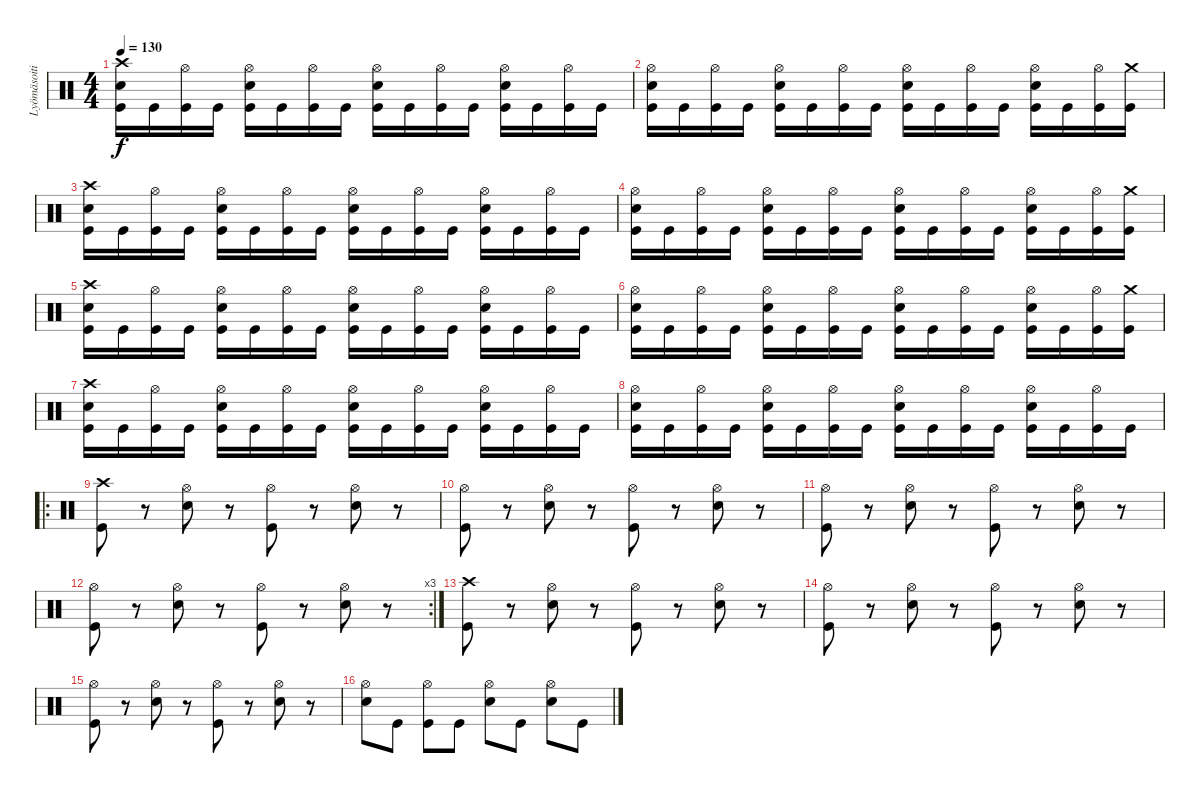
\track ("Lyömäsoitin" "Lyömäsoiti") {instrument percussion}
\staff {score}
\articulation defaults
\ts (4 4)
\tempo 130
\clef neutral
\ks c
("Crash high (hit)" "Snare (hit) 2" "Kick (hit)").16{dy f} "Kick (hit)".16 ("Hi-Hat (open)" "Kick (hit)").16 "Kick (hit)".16 ("Hi-Hat (open)" "Snare (hit) 2" "Kick (hit)").16 "Kick (hit)".16 ("Hi-Hat (open)" "Kick (hit)").16 "Kick (hit)".16 ("Hi-Hat (open)" "Snare (hit) 2" "Kick (hit)").16 "Kick (hit)".16 ("Hi-Hat (open)" "Kick (hit)").16 "Kick (hit)".16 ("Hi-Hat (open)" "Snare (hit) 2" "Kick (hit)").16 "Kick (hit)".16 ("Hi-Hat (open)" "Kick (hit)").16 "Kick (hit)".16 |
("Hi-Hat (open)" "Snare (hit) 2" "Kick (hit)").16 "Kick (hit)".16 ("Hi-Hat (open)" "Kick (hit)").16 "Kick (hit)".16 ("Hi-Hat (open)" "Snare (hit) 2" "Kick (hit)").16 "Kick (hit)".16 ("Hi-Hat (open)" "Kick (hit)").16 "Kick (hit)".16 ("Hi-Hat (open)" "Snare (hit) 2" "Kick (hit)").16 "Kick (hit)".16 ("Hi-Hat (open)" "Kick (hit)").16 "Kick (hit)".16 ("Hi-Hat (open)" "Snare (hit) 2" "Kick (hit)").16 "Kick (hit)".16 ("Hi-Hat (open)" "Kick (hit)").16 ("Crash medium (hit)" "Kick (hit)").16 |
("Crash high (hit)" "Snare (hit) 2" "Kick (hit)").16 "Kick (hit)".16 ("Hi-Hat (open)" "Kick (hit)").16 "Kick (hit)".16 ("Hi-Hat (open)" "Snare (hit) 2" "Kick (hit)").16 "Kick (hit)".16 ("Hi-Hat (open)" "Kick (hit)").16 "Kick (hit)".16 ("Hi-Hat (open)" "Snare (hit) 2" "Kick (hit)").16 "Kick (hit)".16 ("Hi-Hat (open)" "Kick (hit)").16 "Kick (hit)".16 ("Hi-Hat (open)" "Snare (hit) 2" "Kick (hit)").16 "Kick (hit)".16 ("Hi-Hat (open)" "Kick (hit)").16 "Kick (hit)".16 |
("Hi-Hat (open)" "Snare (hit) 2" "Kick (hit)").16 "Kick (hit)".16 ("Hi-Hat (open)" "Kick (hit)").16 "Kick (hit)".16 ("Hi-Hat (open)" "Snare (hit) 2" "Kick (hit)").16 "Kick (hit)".16 ("Hi-Hat (open)" "Kick (hit)").16 "Kick (hit)".16 ("Hi-Hat (open)" "Snare (hit) 2" "Kick (hit)").16 "Kick (hit)".16 ("Hi-Hat (open)" "Kick (hit)").16 "Kick (hit)".16 ("Hi-Hat (open)" "Snare (hit) 2" "Kick (hit)").16 "Kick (hit)".16 ("Hi-Hat (open)" "Kick (hit)").16 ("Crash medium (hit)" "Kick (hit)").16 |
("Crash high (hit)" "Snare (hit) 2" "Kick (hit)").16 "Kick (hit)".16 ("Hi-Hat (open)" "Kick (hit)").16 "Kick (hit)".16 ("Hi-Hat (open)" "Snare (hit) 2" "Kick (hit)").16 "Kick (hit)".16 ("Hi-Hat (open)" "Kick (hit)").16 "Kick (hit)".16 ("Hi-Hat (open)" "Snare (hit) 2" "Kick (hit)").16 "Kick (hit)".16 ("Hi-Hat (open)" "Kick (hit)").16 "Kick (hit)".16 ("Hi-Hat (open)" "Snare (hit) 2" "Kick (hit)").16 "Kick (hit)".16 ("Hi-Hat (open)" "Kick (hit)").16 "Kick (hit)".16 |
("Hi-Hat (open)" "Snare (hit) 2" "Kick (hit)").16 "Kick (hit)".16 ("Hi-Hat (open)" "Kick (hit)").16 "Kick (hit)".16 ("Hi-Hat (open)" "Snare (hit) 2" "Kick (hit)").16 "Kick (hit)".16 ("Hi-Hat (open)" "Kick (hit)").16 "Kick (hit)".16 ("Hi-Hat (open)" "Snare (hit) 2" "Kick (hit)").16 "Kick (hit)".16 ("Hi-Hat (open)" "Kick (hit)").16 "Kick (hit)".16 ("Hi-Hat (open)" "Snare (hit) 2" "Kick (hit)").16 "Kick (hit)".16 ("Hi-Hat (open)" "Kick (hit)").16 ("Crash medium (hit)" "Kick (hit)").16 |
("Crash high (hit)" "Snare (hit) 2" "Kick (hit)").16 "Kick (hit)".16 ("Hi-Hat (open)" "Kick (hit)").16 "Kick (hit)".16 ("Hi-Hat (open)" "Snare (hit) 2" "Kick (hit)").16 "Kick (hit)".16 ("Hi-Hat (open)" "Kick (hit)").16 "Kick (hit)".16 ("Hi-Hat (open)" "Snare (hit) 2" "Kick (hit)").16 "Kick (hit)".16 ("Hi-Hat (open)" "Kick (hit)").16 "Kick (hit)".16 ("Hi-Hat (open)" "Snare (hit) 2" "Kick (hit)").16 "Kick (hit)".16 ("Hi-Hat (open)" "Kick (hit)").16 "Kick (hit)".16 |
("Hi-Hat (open)" "Snare (hit) 2" "Kick (hit)").16 "Kick (hit)".16 ("Hi-Hat (open)" "Kick (hit)").16 "Kick (hit)".16 ("Hi-Hat (open)" "Snare (hit) 2" "Kick (hit)").16 "Kick (hit)".16 ("Hi-Hat (open)" "Kick (hit)").16 "Kick (hit)".16 ("Hi-Hat (open)" "Snare (hit) 2" "Kick (hit)").16 "Kick (hit)".16 ("Hi-Hat (open)" "Kick (hit)").16 "Kick (hit)".16 ("Hi-Hat (open)" "Snare (hit) 2" "Kick (hit)").16 "Kick (hit)".16 ("Hi-Hat (open)" "Kick (hit)").16 "Kick (hit)".16 |
\ro
("Crash high (hit)" "Kick (hit)").8 r.8 ("Hi-Hat (open)" "Snare (hit) 2").8 r.8 ("Hi-Hat (open)" "Kick (hit)").8 r.8 ("Hi-Hat (open)" "Snare (hit) 2").8 r.8 |
("Hi-Hat (open)" "Kick (hit)").8 r.8 ("Hi-Hat (open)" "Snare (hit) 2").8 r.8 ("Hi-Hat (open)" "Kick (hit)").8 r.8 ("Hi-Hat (open)" "Snare (hit) 2").8 r.8 |
("Hi-Hat (open)" "Kick (hit)").8 r.8 ("Hi-Hat (open)" "Snare (hit) 2").8 r.8 ("Hi-Hat (open)" "Kick (hit)").8 r.8 ("Hi-Hat (open)" "Snare (hit) 2").8 r.8 |
\rc 3
("Hi-Hat (open)" "Kick (hit)").8 r.8 ("Hi-Hat (open)" "Snare (hit) 2").8 r.8 ("Hi-Hat (open)" "Kick (hit)").8 r.8 ("Hi-Hat (open)" "Snare (hit) 2").8 r.8 |
("Crash high (hit)" "Kick (hit)").8 r.8 ("Hi-Hat (open)" "Snare (hit) 2").8 r.8 ("Hi-Hat (open)" "Kick (hit)").8 r.8 ("Hi-Hat (open)" "Snare (hit) 2").8 r.8 |
("Hi-Hat (open)" "Kick (hit)").8 r.8 ("Hi-Hat (open)" "Snare (hit) 2").8 r.8 ("Hi-Hat (open)" "Kick (hit)").8 r.8 ("Hi-Hat (open)" "Snare (hit) 2").8 r.8 |
("Hi-Hat (open)" "Kick (hit)").8 r.8 ("Hi-Hat (open)" "Snare (hit) 2").8 r.8 ("Hi-Hat (open)" "Kick (hit)").8 r.8 ("Hi-Hat (open)" "Snare (hit) 2").8 r.8 |
("Hi-Hat (open)" "Snare (hit) 2").8 "Kick (hit)".8 ("Hi-Hat (open)" "Kick (hit)").8 "Kick (hit)".8 ("Hi-Hat (open)" "Snare (hit) 2").8 "Kick (hit)".8 ("Hi-Hat (open)" "Snare (hit) 2").8 "Kick (hit)".8
